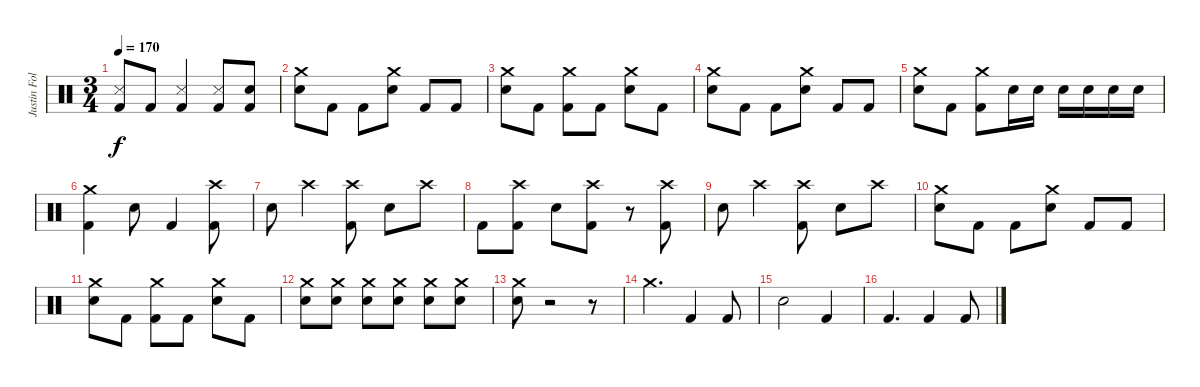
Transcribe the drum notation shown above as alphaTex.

\track ("Justin Foley" "Justin Fol") {instrument percussion}
\staff {score}
\articulation defaults
\ts (3 4)
\tempo 170
\clef neutral
\ks c
("Metronome (hit)" "Kick (hit) 2").8{dy f} "Kick (hit) 2".8 ("Metronome (hit)" "Kick (hit) 2").4 ("Metronome (hit)" "Kick (hit) 2").8 ("Snare (hit) 2" "Kick (hit) 2").8 |
("Crash medium (hit)" "Snare (hit) 2").8 "Kick (hit) 2".8 "Kick (hit) 2".8 ("Crash medium (hit)" "Snare (hit) 2").8 "Kick (hit) 2".8 "Kick (hit) 2".8 |
("Crash medium (hit)" "Snare (hit) 2").8 "Kick (hit) 2".8 ("Crash medium (hit)" "Kick (hit) 2").8 "Kick (hit) 2".8 ("Crash medium (hit)" "Snare (hit) 2").8 "Kick (hit) 2".8 |
("Crash medium (hit)" "Snare (hit) 2").8 "Kick (hit) 2".8 "Kick (hit) 2".8 ("Crash medium (hit)" "Snare (hit) 2").8 "Kick (hit) 2".8 "Kick (hit) 2".8 |
("Crash medium (hit)" "Snare (hit) 2").8 "Kick (hit) 2".8 ("Crash medium (hit)" "Kick (hit) 2").8 "Snare (hit) 2".16 "Snare (hit) 2".16 "Snare (hit) 2".16 "Snare (hit) 2".16 "Snare (hit) 2".16 "Snare (hit) 2".16 |
("Crash medium (hit)" "Kick (hit) 2").4 "Snare (hit) 2".8 "Kick (hit) 2".4 ("Crash high (hit)" "Kick (hit) 2").8 |
"Snare (hit) 2".8 "Crash high (hit)".4 ("Crash high (hit)" "Kick (hit) 2").8 "Snare (hit) 2".8 "Crash high (hit)".8 |
"Kick (hit) 2".8 ("Crash high (hit)" "Kick (hit) 2").8 "Snare (hit) 2".8 ("Crash high (hit)" "Kick (hit) 2").8 r.8 ("Crash high (hit)" "Kick (hit) 2").8 |
"Snare (hit) 2".8 "Crash high (hit)".4 ("Crash high (hit)" "Kick (hit) 2").8 "Snare (hit) 2".8 "Crash high (hit)".8 |
("Crash medium (hit)" "Snare (hit) 2").8 "Kick (hit) 2".8 "Kick (hit) 2".8 ("Crash medium (hit)" "Snare (hit) 2").8 "Kick (hit) 2".8 "Kick (hit) 2".8 |
("Crash medium (hit)" "Snare (hit) 2").8 "Kick (hit) 2".8 ("Crash medium (hit)" "Kick (hit) 2").8 "Kick (hit) 2".8 ("Crash medium (hit)" "Snare (hit) 2").8 "Kick (hit) 2".8 |
("Crash medium (hit)" "Snare (hit) 2").8 ("Crash medium (hit)" "Snare (hit) 2").8 ("Crash medium (hit)" "Snare (hit) 2").8 ("Crash medium (hit)" "Snare (hit) 2").8 ("Crash medium (hit)" "Snare (hit) 2").8 ("Crash medium (hit)" "Snare (hit) 2").8 |
("Crash medium (hit)" "Snare (hit) 2").8 r.2 r.8 |
"Crash medium (hit)".4{d} "Kick (hit) 2".4 "Kick (hit) 2".8 |
"Snare (hit) 2".2 "Kick (hit) 2".4 |
"Kick (hit) 2".4{d} "Kick (hit) 2".4 "Kick (hit) 2".8
